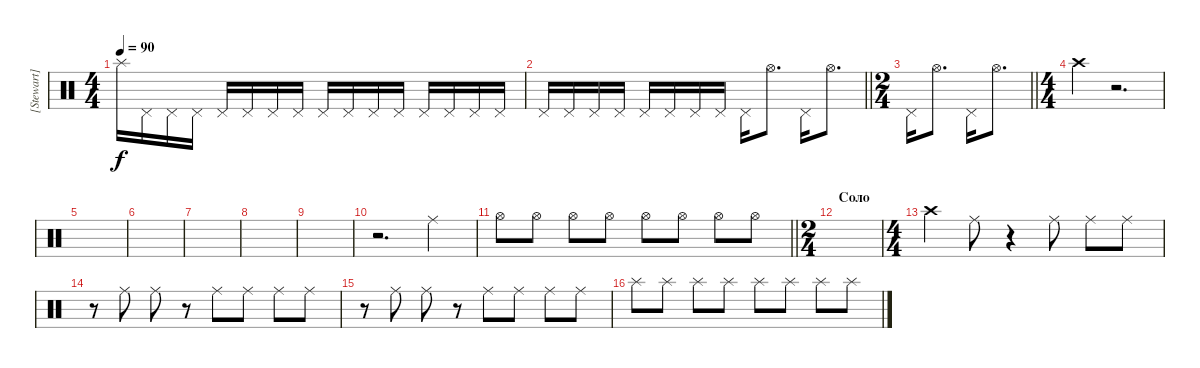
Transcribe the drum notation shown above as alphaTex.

\track ("[Stewart] (hats)" "[Stewart] ") {instrument percussion}
\staff {score}
\articulation defaults
\ts (4 4)
\tempo 90
\clef neutral
\ks c "Splash (hit)".16{dy f} "Pedal Hi-Hat (hit)".16 "Pedal Hi-Hat (hit)".16 "Pedal Hi-Hat (hit)".16 "Pedal Hi-Hat (hit)".16 "Pedal Hi-Hat (hit)".16 "Pedal Hi-Hat (hit)".16 "Pedal Hi-Hat (hit)".16 "Pedal Hi-Hat (hit)".16 "Pedal Hi-Hat (hit)".16 "Pedal Hi-Hat (hit)".16 "Pedal Hi-Hat (hit)".16 "Pedal Hi-Hat (hit)".16 "Pedal Hi-Hat (hit)".16 "Pedal Hi-Hat (hit)".16 "Pedal Hi-Hat (hit)".16
|
\barLineRight lightlight "Pedal Hi-Hat (hit)".16 "Pedal Hi-Hat (hit)".16 "Pedal Hi-Hat (hit)".16 "Pedal Hi-Hat (hit)".16 "Pedal Hi-Hat (hit)".16 "Pedal Hi-Hat (hit)".16 "Pedal Hi-Hat (hit)".16 "Pedal Hi-Hat (hit)".16 "Pedal Hi-Hat (hit)".16 "Hi-Hat (open)".8{d} "Pedal Hi-Hat (hit)".16 "Hi-Hat (open)".8{d}
|
\ts (2 4)
\barLineRight lightlight "Pedal Hi-Hat (hit)".16 "Hi-Hat (open)".8{d} "Pedal Hi-Hat (hit)".16 "Hi-Hat (open)".8{d}
|
\ts (4 4)
"Crash high (hit)".4 r.2{d} |
|
|
|
|
|
r.2{d} "Ride (middle)".4 |
\barLineRight lightlight "Hi-Hat (open)".8 "Hi-Hat (open)".8 "Hi-Hat (open)".8 "Hi-Hat (open)".8 "Hi-Hat (open)".8 "Hi-Hat (open)".8 "Hi-Hat (open)".8 "Hi-Hat (open)".8
|
\ts (2 4)
\section ("" "Соло")
|
\ts (4 4)
"Crash high (hit)".4 "Ride (middle)".8 r.4 "Ride (middle)".8 "Ride (middle)".8 "Ride (middle)".8 |
r.8 "Ride (middle)".8 "Ride (middle)".8 r.8 "Ride (middle)".8 "Ride (middle)".8 "Ride (middle)".8 "Ride (middle)".8 |
r.8 "Ride (middle)".8 "Ride (middle)".8 r.8 "Ride (middle)".8 "Ride (middle)".8 "Ride (middle)".8 "Ride (middle)".8 |
"Splash (hit)".8 "Splash (hit)".8 "Splash (hit)".8 "Splash (hit)".8 "Splash (hit)".8 "Splash (hit)".8 "Splash (hit)".8 "Splash (hit)".8
